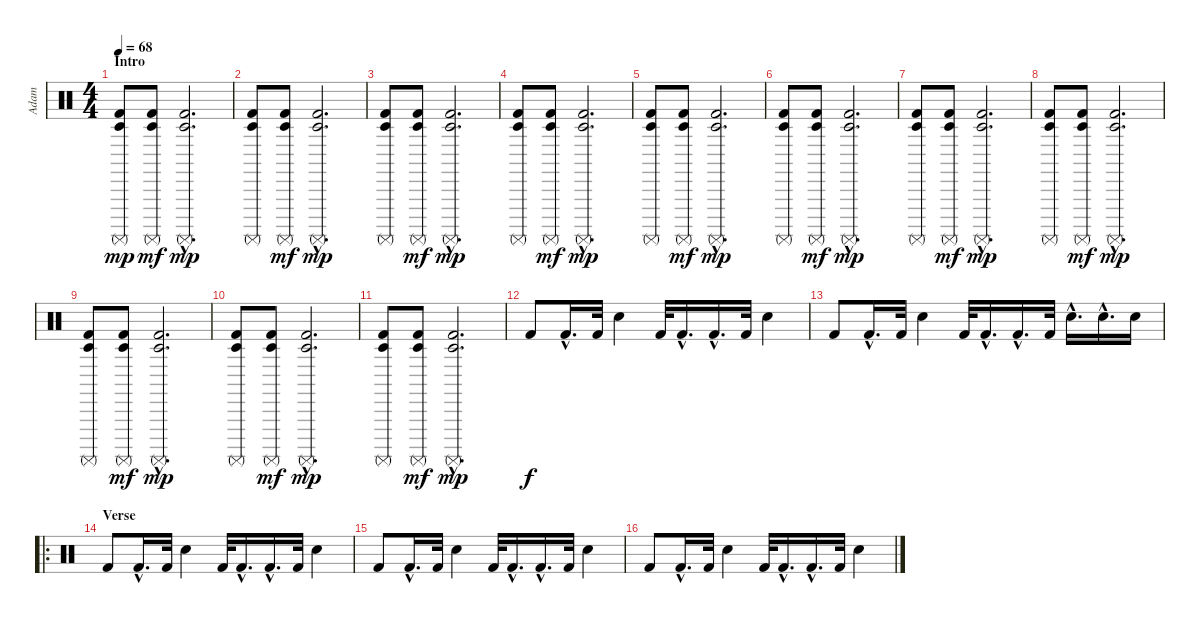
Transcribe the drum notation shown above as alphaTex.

\track ("Adam" "Adam") {instrument percussion}
\staff {score}
\articulation defaults
\ts (4 4)
\section ("" "Intro")
\tempo 68
\clef neutral
\ks c
("Timbale low (hit)" "Kick (hit) 2" "Surdo (mute)").8{dy mp} ("Timbale low (hit)" "Kick (hit) 2" "Surdo (mute)").8{dy mf} ("Timbale low (hit)"{hac} "Kick (hit) 2"{hac} "Surdo (mute)"{hac}).2{d dy mp} |
("Timbale low (hit)" "Kick (hit) 2" "Surdo (mute)").8 ("Timbale low (hit)" "Kick (hit) 2" "Surdo (mute)").8{dy mf} ("Timbale low (hit)"{hac} "Kick (hit) 2"{hac} "Surdo (mute)"{hac}).2{d dy mp} |
("Timbale low (hit)" "Kick (hit) 2" "Surdo (mute)").8 ("Timbale low (hit)" "Kick (hit) 2" "Surdo (mute)").8{dy mf} ("Timbale low (hit)"{hac} "Kick (hit) 2"{hac} "Surdo (mute)"{hac}).2{d dy mp} |
("Timbale low (hit)" "Kick (hit) 2" "Surdo (mute)").8 ("Timbale low (hit)" "Kick (hit) 2" "Surdo (mute)").8{dy mf} ("Timbale low (hit)"{hac} "Kick (hit) 2"{hac} "Surdo (mute)"{hac}).2{d dy mp} |
("Timbale low (hit)" "Kick (hit) 2" "Surdo (mute)").8 ("Timbale low (hit)" "Kick (hit) 2" "Surdo (mute)").8{dy mf} ("Timbale low (hit)"{hac} "Kick (hit) 2"{hac} "Surdo (mute)"{hac}).2{d dy mp} |
("Timbale low (hit)" "Kick (hit) 2" "Surdo (mute)").8 ("Timbale low (hit)" "Kick (hit) 2" "Surdo (mute)").8{dy mf} ("Timbale low (hit)"{hac} "Kick (hit) 2"{hac} "Surdo (mute)"{hac}).2{d dy mp} |
("Timbale low (hit)" "Kick (hit) 2" "Surdo (mute)").8 ("Timbale low (hit)" "Kick (hit) 2" "Surdo (mute)").8{dy mf} ("Timbale low (hit)"{hac} "Kick (hit) 2"{hac} "Surdo (mute)"{hac}).2{d dy mp} |
("Timbale low (hit)" "Kick (hit) 2" "Surdo (mute)").8 ("Timbale low (hit)" "Kick (hit) 2" "Surdo (mute)").8{dy mf} ("Timbale low (hit)"{hac} "Kick (hit) 2"{hac} "Surdo (mute)"{hac}).2{d dy mp} |
("Timbale low (hit)" "Kick (hit) 2" "Surdo (mute)").8 ("Timbale low (hit)" "Kick (hit) 2" "Surdo (mute)").8{dy mf} ("Timbale low (hit)"{hac} "Kick (hit) 2"{hac} "Surdo (mute)"{hac}).2{d dy mp} |
("Timbale low (hit)" "Kick (hit) 2" "Surdo (mute)").8 ("Timbale low (hit)" "Kick (hit) 2" "Surdo (mute)").8{dy mf} ("Timbale low (hit)"{hac} "Kick (hit) 2"{hac} "Surdo (mute)"{hac}).2{d dy mp} |
("Timbale low (hit)" "Kick (hit) 2" "Surdo (mute)").8 ("Timbale low (hit)" "Kick (hit) 2" "Surdo (mute)").8{dy mf} ("Timbale low (hit)"{hac} "Kick (hit) 2"{hac} "Surdo (mute)"{hac}).2{d dy mp} |
"Kick (hit) 2".8{dy f} "Kick (hit) 2"{hac}.16{d} "Kick (hit) 2".32 "Electric Snare (hit)".4 "Kick (hit) 2".32 "Kick (hit) 2"{hac}.16{d} "Kick (hit) 2"{hac}.16{d} "Kick (hit) 2".32 "Electric Snare (hit)".4 |
"Kick (hit) 2".8 "Kick (hit) 2"{hac}.16{d} "Kick (hit) 2".32 "Electric Snare (hit)".4 "Kick (hit) 2".32 "Kick (hit) 2"{hac}.16{d} "Kick (hit) 2"{hac}.16{d} "Kick (hit) 2".32 "Electric Snare (hit)"{hac}.16{d} "Electric Snare (hit)"{hac}.16{d} "Electric Snare (hit)".16 |
\ro
\section ("" "Verse")
"Kick (hit) 2".8 "Kick (hit) 2"{hac}.16{d} "Kick (hit) 2".32 "Electric Snare (hit)".4 "Kick (hit) 2".32 "Kick (hit) 2"{hac}.16{d} "Kick (hit) 2"{hac}.16{d} "Kick (hit) 2".32 "Electric Snare (hit)".4 |
"Kick (hit) 2".8 "Kick (hit) 2"{hac}.16{d} "Kick (hit) 2".32 "Electric Snare (hit)".4 "Kick (hit) 2".32 "Kick (hit) 2"{hac}.16{d} "Kick (hit) 2"{hac}.16{d} "Kick (hit) 2".32 "Electric Snare (hit)".4 |
"Kick (hit) 2".8 "Kick (hit) 2"{hac}.16{d} "Kick (hit) 2".32 "Electric Snare (hit)".4 "Kick (hit) 2".32 "Kick (hit) 2"{hac}.16{d} "Kick (hit) 2"{hac}.16{d} "Kick (hit) 2".32 "Electric Snare (hit)".4
